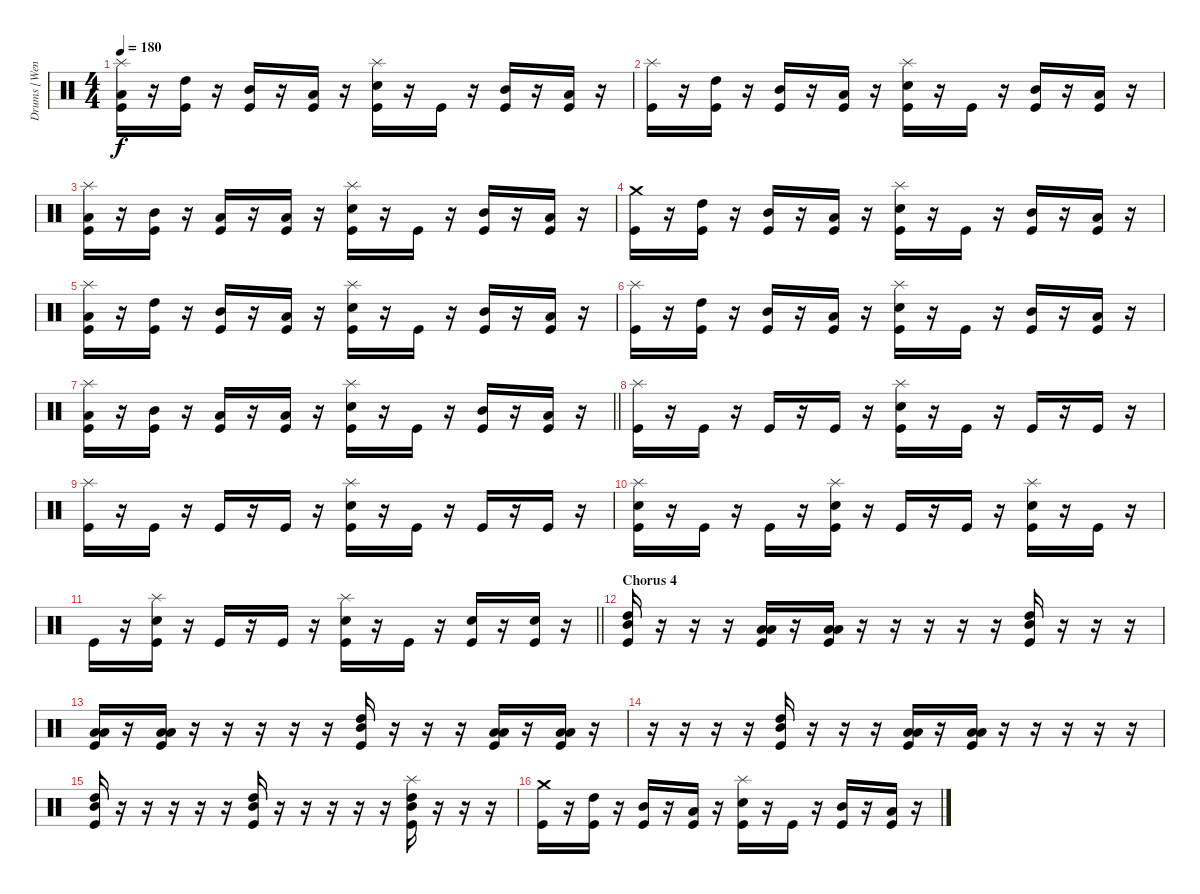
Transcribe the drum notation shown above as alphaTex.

\track ("Drums [Wengren]" "Drums [Wen") {instrument percussion}
\staff {score}
\articulation defaults
\ts (4 4)
\tempo 180
\clef neutral
\ks c
("Splash (hit)" "Low Floor Tom (hit)" "Kick (hit)").16{dy f} r.16 ("High Tom (hit)" "Kick (hit)").16 r.16 ("Mid Tom (hit)" "Kick (hit)").16 r.16 ("Low Tom (hit)" "Kick (hit)").16 r.16 ("Splash (hit)" "Electric Snare (hit)" "Kick (hit)").16 r.16 "Kick (hit)".16 r.16 ("Mid Tom (hit)" "Kick (hit)").16 r.16 ("Low Tom (hit)" "Kick (hit)").16 r.16 |
("Splash (hit)" "Kick (hit)").16 r.16 ("High Tom (hit)" "Kick (hit)").16 r.16 ("Mid Tom (hit)" "Kick (hit)").16 r.16 ("Low Tom (hit)" "Kick (hit)").16 r.16 ("Splash (hit)" "Electric Snare (hit)" "Kick (hit)").16 r.16 "Kick (hit)".16 r.16 ("Mid Tom (hit)" "Kick (hit)").16 r.16 ("Low Tom (hit)" "Kick (hit)").16 r.16 |
("Splash (hit)" "Low Floor Tom (hit)" "Kick (hit)").16 r.16 ("Mid Tom (hit)" "Kick (hit)").16 r.16 ("Low Tom (hit)" "Kick (hit)").16 r.16 ("Low Floor Tom (hit)" "Kick (hit)").16 r.16 ("Splash (hit)" "Electric Snare (hit)" "Kick (hit)").16 r.16 "Kick (hit)".16 r.16 ("Mid Tom (hit)" "Kick (hit)").16 r.16 ("Low Floor Tom (hit)" "Kick (hit)").16 r.16 |
("Crash medium (hit)" "Kick (hit)").16 r.16 ("High Tom (hit)" "Kick (hit)").16 r.16 ("Mid Tom (hit)" "Kick (hit)").16 r.16 ("Low Tom (hit)" "Kick (hit)").16 r.16 ("Splash (hit)" "Electric Snare (hit)" "Kick (hit)").16 r.16 "Kick (hit)".16 r.16 ("Mid Tom (hit)" "Kick (hit)").16 r.16 ("Low Tom (hit)" "Kick (hit)").16 r.16 |
("Splash (hit)" "Low Floor Tom (hit)" "Kick (hit)").16 r.16 ("High Tom (hit)" "Kick (hit)").16 r.16 ("Mid Tom (hit)" "Kick (hit)").16 r.16 ("Low Tom (hit)" "Kick (hit)").16 r.16 ("Splash (hit)" "Electric Snare (hit)" "Kick (hit)").16 r.16 "Kick (hit)".16 r.16 ("Mid Tom (hit)" "Kick (hit)").16 r.16 ("Low Tom (hit)" "Kick (hit)").16 r.16 |
("Splash (hit)" "Kick (hit)").16 r.16 ("High Tom (hit)" "Kick (hit)").16 r.16 ("Mid Tom (hit)" "Kick (hit)").16 r.16 ("Low Tom (hit)" "Kick (hit)").16 r.16 ("Splash (hit)" "Electric Snare (hit)" "Kick (hit)").16 r.16 "Kick (hit)".16 r.16 ("Mid Tom (hit)" "Kick (hit)").16 r.16 ("Low Tom (hit)" "Kick (hit)").16 r.16 |
\barLineRight lightlight
("Splash (hit)" "Low Floor Tom (hit)" "Kick (hit)").16 r.16 ("Mid Tom (hit)" "Kick (hit)").16 r.16 ("Low Tom (hit)" "Kick (hit)").16 r.16 ("Low Floor Tom (hit)" "Kick (hit)").16 r.16 ("Splash (hit)" "Electric Snare (hit)" "Kick (hit)").16 r.16 "Kick (hit)".16 r.16 ("Mid Tom (hit)" "Kick (hit)").16 r.16 ("Low Floor Tom (hit)" "Kick (hit)").16 r.16 |
("Splash (hit)" "Kick (hit)").16 r.16 "Kick (hit)".16 r.16 "Kick (hit)".16 r.16 "Kick (hit)".16 r.16 ("Splash (hit)" "Electric Snare (hit)" "Kick (hit)").16 r.16 "Kick (hit)".16 r.16 "Kick (hit)".16 r.16 "Kick (hit)".16 r.16 |
("Splash (hit)" "Kick (hit)").16 r.16 "Kick (hit)".16 r.16 "Kick (hit)".16 r.16 "Kick (hit)".16 r.16 ("Splash (hit)" "Electric Snare (hit)" "Kick (hit)").16 r.16 "Kick (hit)".16 r.16 "Kick (hit)".16 r.16 "Kick (hit)".16 r.16 |
("Splash (hit)" "Electric Snare (hit)" "Kick (hit)").16 r.16 "Kick (hit)".16 r.16 "Kick (hit)".16 r.16 ("Splash (hit)" "Electric Snare (hit)" "Kick (hit)").16 r.16 "Kick (hit)".16 r.16 "Kick (hit)".16 r.16 ("Splash (hit)" "Electric Snare (hit)" "Kick (hit)").16 r.16 "Kick (hit)".16 r.16 |
\barLineRight lightlight "Kick (hit)".16
r.16 ("Splash (hit)" "Electric Snare (hit)" "Kick (hit)").16 r.16 "Kick (hit)".16 r.16 "Kick (hit)".16 r.16 ("Splash (hit)" "Electric Snare (hit)" "Kick (hit)").16 r.16 "Kick (hit)".16 r.16 ("Electric Snare (hit)" "Kick (hit)").16 r.16 ("Electric Snare (hit)" "Kick (hit)").16 r.16 |
\section ("" "Chorus 4")
("High Tom (hit)" "Mid Tom (hit)" "Kick (hit)").16 r.16 r.16 r.16 ("Low Tom (hit)" "Low Floor Tom (hit)" "Kick (hit)").16 r.16 ("Low Tom (hit)" "Low Floor Tom (hit)" "Kick (hit)").16 r.16 r.16 r.16 r.16 r.16 ("High Tom (hit)" "Mid Tom (hit)" "Kick (hit)").16 r.16 r.16 r.16 |
("Low Tom (hit)" "Low Floor Tom (hit)" "Kick (hit)").16 r.16 ("Low Tom (hit)" "Low Floor Tom (hit)" "Kick (hit)").16 r.16 r.16 r.16 r.16 r.16 ("High Tom (hit)" "Mid Tom (hit)" "Kick (hit)").16 r.16 r.16 r.16 ("Low Tom (hit)" "Low Floor Tom (hit)" "Kick (hit)").16 r.16 ("Low Tom (hit)" "Low Floor Tom (hit)" "Kick (hit)").16 r.16 |
r.16 r.16 r.16 r.16 ("High Tom (hit)" "Mid Tom (hit)" "Kick (hit)").16 r.16 r.16 r.16 ("Low Tom (hit)" "Low Floor Tom (hit)" "Kick (hit)").16 r.16 ("Low Tom (hit)" "Low Floor Tom (hit)" "Kick (hit)").16 r.16 r.16 r.16 r.16 r.16 |
("High Tom (hit)" "Mid Tom (hit)" "Kick (hit)").16 r.16 r.16 r.16 r.16 r.16 ("High Tom (hit)" "Mid Tom (hit)" "Kick (hit)").16 r.16 r.16 r.16 r.16 r.16 ("Splash (hit)" "High Tom (hit)" "Mid Tom (hit)" "Kick (hit)").16 r.16 r.16 r.16 |
("Crash medium (hit)" "Kick (hit)").16 r.16 ("High Tom (hit)" "Kick (hit)").16 r.16 ("Mid Tom (hit)" "Kick (hit)").16 r.16 ("Low Tom (hit)" "Kick (hit)").16 r.16 ("Splash (hit)" "Electric Snare (hit)" "Kick (hit)").16 r.16 "Kick (hit)".16 r.16 ("Mid Tom (hit)" "Kick (hit)").16 r.16 ("Low Tom (hit)" "Kick (hit)").16 r.16
